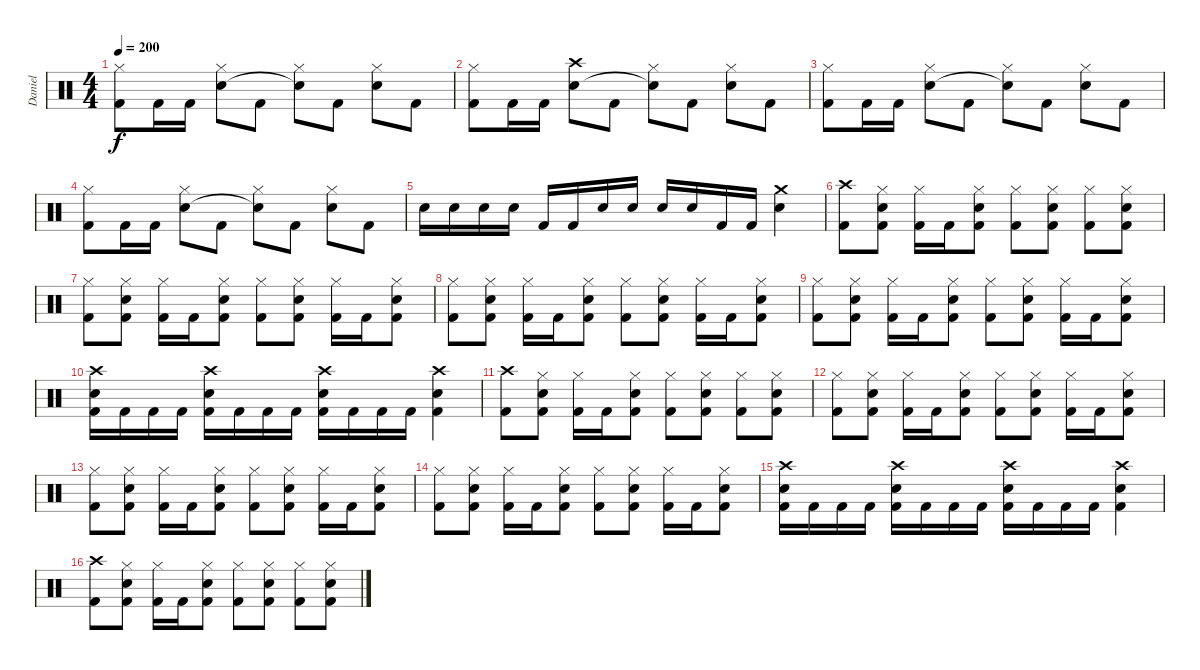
\track ("Daniel" "Daniel") {instrument percussion}
\staff {score}
\articulation defaults
\ts (4 4)
\tempo 200
\clef neutral
\ks c
("Hi-Hat (closed)" "Kick (hit) 2").8{dy f} "Kick (hit) 2".16 "Kick (hit) 2".16 ("Hi-Hat (closed)" "Electric Snare (hit)").8 "Kick (hit) 2".8 ("Hi-Hat (closed)" "Snare (hit)"{t}).8 "Kick (hit) 2".8 ("Hi-Hat (closed)" "Electric Snare (hit)").8 "Kick (hit) 2".8 |
("Hi-Hat (closed)" "Kick (hit) 2").8 "Kick (hit) 2".16 "Kick (hit) 2".16 ("Crash high (hit)" "Electric Snare (hit)").8 "Kick (hit) 2".8 ("Hi-Hat (closed)" "Snare (hit)"{t}).8 "Kick (hit) 2".8 ("Hi-Hat (closed)" "Electric Snare (hit)").8 "Kick (hit) 2".8 |
("Hi-Hat (closed)" "Kick (hit) 2").8 "Kick (hit) 2".16 "Kick (hit) 2".16 ("Hi-Hat (closed)" "Electric Snare (hit)").8 "Kick (hit) 2".8 ("Hi-Hat (closed)" "Snare (hit)"{t}).8 "Kick (hit) 2".8 ("Hi-Hat (closed)" "Electric Snare (hit)").8 "Kick (hit) 2".8 |
("Hi-Hat (closed)" "Kick (hit) 2").8 "Kick (hit) 2".16 "Kick (hit) 2".16 ("Hi-Hat (closed)" "Electric Snare (hit)").8 "Kick (hit) 2".8 ("Hi-Hat (closed)" "Snare (hit)"{t}).8 "Kick (hit) 2".8 ("Hi-Hat (closed)" "Electric Snare (hit)").8 "Kick (hit) 2".8 |
"Snare (hit) 2".16 "Snare (hit) 2".16 "Snare (hit) 2".16 "Snare (hit) 2".16 "Kick (hit) 2".16 "Kick (hit) 2".16 "Snare (hit) 2".16 "Snare (hit) 2".16 "Snare (hit) 2".16 "Snare (hit) 2".16 "Kick (hit) 2".16 "Kick (hit) 2".16 ("Crash medium (hit)" "Snare (hit) 2").4 |
("Crash high (hit)" "Kick (hit) 2").8 ("Hi-Hat (closed)" "Electric Snare (hit)" "Kick (hit) 2").8 ("Hi-Hat (closed)" "Kick (hit) 2").16 "Kick (hit) 2".16 ("Hi-Hat (closed)" "Electric Snare (hit)" "Kick (hit) 2").8 ("Hi-Hat (closed)" "Kick (hit) 2").8 ("Hi-Hat (closed)" "Electric Snare (hit)" "Kick (hit) 2").8 ("Hi-Hat (closed)" "Kick (hit) 2").8 ("Hi-Hat (closed)" "Electric Snare (hit)" "Kick (hit) 2").8 |
("Hi-Hat (closed)" "Kick (hit) 2").8 ("Hi-Hat (closed)" "Electric Snare (hit)" "Kick (hit) 2").8 ("Hi-Hat (closed)" "Kick (hit) 2").16 "Kick (hit) 2".16 ("Hi-Hat (closed)" "Electric Snare (hit)" "Kick (hit) 2").8 ("Hi-Hat (closed)" "Kick (hit) 2").8 ("Hi-Hat (closed)" "Electric Snare (hit)" "Kick (hit) 2").8 ("Hi-Hat (closed)" "Kick (hit) 2").16 "Kick (hit) 2".16 ("Hi-Hat (closed)" "Electric Snare (hit)" "Kick (hit) 2").8 |
("Hi-Hat (closed)" "Kick (hit) 2").8 ("Hi-Hat (closed)" "Electric Snare (hit)" "Kick (hit) 2").8 ("Hi-Hat (closed)" "Kick (hit) 2").16 "Kick (hit) 2".16 ("Hi-Hat (closed)" "Electric Snare (hit)" "Kick (hit) 2").8 ("Hi-Hat (closed)" "Kick (hit) 2").8 ("Hi-Hat (closed)" "Electric Snare (hit)" "Kick (hit) 2").8 ("Hi-Hat (closed)" "Kick (hit) 2").16 "Kick (hit) 2".16 ("Hi-Hat (closed)" "Electric Snare (hit)" "Kick (hit) 2").8 |
("Hi-Hat (closed)" "Kick (hit) 2").8 ("Hi-Hat (closed)" "Electric Snare (hit)" "Kick (hit) 2").8 ("Hi-Hat (closed)" "Kick (hit) 2").16 "Kick (hit) 2".16 ("Hi-Hat (closed)" "Electric Snare (hit)" "Kick (hit) 2").8 ("Hi-Hat (closed)" "Kick (hit) 2").8 ("Hi-Hat (closed)" "Electric Snare (hit)" "Kick (hit) 2").8 ("Hi-Hat (closed)" "Kick (hit) 2").16 "Kick (hit) 2".16 ("Hi-Hat (closed)" "Electric Snare (hit)" "Kick (hit) 2").8 |
("Crash high (hit)" "Electric Snare (hit)" "Kick (hit) 2").16 "Kick (hit) 2".16 "Kick (hit) 2".16 "Kick (hit) 2".16 ("Crash high (hit)" "Electric Snare (hit)" "Kick (hit) 2").16 "Kick (hit) 2".16 "Kick (hit) 2".16 "Kick (hit) 2".16 ("Crash high (hit)" "Electric Snare (hit)" "Kick (hit) 2").16 "Kick (hit) 2".16 "Kick (hit) 2".16 "Kick (hit) 2".16 ("Crash high (hit)" "Electric Snare (hit)" "Kick (hit) 2").4 |
("Crash high (hit)" "Kick (hit) 2").8 ("Hi-Hat (closed)" "Electric Snare (hit)" "Kick (hit) 2").8 ("Hi-Hat (closed)" "Kick (hit) 2").16 "Kick (hit) 2".16 ("Hi-Hat (closed)" "Electric Snare (hit)" "Kick (hit) 2").8 ("Hi-Hat (closed)" "Kick (hit) 2").8 ("Hi-Hat (closed)" "Electric Snare (hit)" "Kick (hit) 2").8 ("Hi-Hat (closed)" "Kick (hit) 2").8 ("Hi-Hat (closed)" "Electric Snare (hit)" "Kick (hit) 2").8 |
("Hi-Hat (closed)" "Kick (hit) 2").8 ("Hi-Hat (closed)" "Electric Snare (hit)" "Kick (hit) 2").8 ("Hi-Hat (closed)" "Kick (hit) 2").16 "Kick (hit) 2".16 ("Hi-Hat (closed)" "Electric Snare (hit)" "Kick (hit) 2").8 ("Hi-Hat (closed)" "Kick (hit) 2").8 ("Hi-Hat (closed)" "Electric Snare (hit)" "Kick (hit) 2").8 ("Hi-Hat (closed)" "Kick (hit) 2").16 "Kick (hit) 2".16 ("Hi-Hat (closed)" "Electric Snare (hit)" "Kick (hit) 2").8 |
("Hi-Hat (closed)" "Kick (hit) 2").8 ("Hi-Hat (closed)" "Electric Snare (hit)" "Kick (hit) 2").8 ("Hi-Hat (closed)" "Kick (hit) 2").16 "Kick (hit) 2".16 ("Hi-Hat (closed)" "Electric Snare (hit)" "Kick (hit) 2").8 ("Hi-Hat (closed)" "Kick (hit) 2").8 ("Hi-Hat (closed)" "Electric Snare (hit)" "Kick (hit) 2").8 ("Hi-Hat (closed)" "Kick (hit) 2").16 "Kick (hit) 2".16 ("Hi-Hat (closed)" "Electric Snare (hit)" "Kick (hit) 2").8 |
("Hi-Hat (closed)" "Kick (hit) 2").8 ("Hi-Hat (closed)" "Electric Snare (hit)" "Kick (hit) 2").8 ("Hi-Hat (closed)" "Kick (hit) 2").16 "Kick (hit) 2".16 ("Hi-Hat (closed)" "Electric Snare (hit)" "Kick (hit) 2").8 ("Hi-Hat (closed)" "Kick (hit) 2").8 ("Hi-Hat (closed)" "Electric Snare (hit)" "Kick (hit) 2").8 ("Hi-Hat (closed)" "Kick (hit) 2").16 "Kick (hit) 2".16 ("Hi-Hat (closed)" "Electric Snare (hit)" "Kick (hit) 2").8 |
("Crash high (hit)" "Electric Snare (hit)" "Kick (hit) 2").16 "Kick (hit) 2".16 "Kick (hit) 2".16 "Kick (hit) 2".16 ("Crash high (hit)" "Electric Snare (hit)" "Kick (hit) 2").16 "Kick (hit) 2".16 "Kick (hit) 2".16 "Kick (hit) 2".16 ("Crash high (hit)" "Electric Snare (hit)" "Kick (hit) 2").16 "Kick (hit) 2".16 "Kick (hit) 2".16 "Kick (hit) 2".16 ("Crash high (hit)" "Electric Snare (hit)" "Kick (hit) 2").4 |
("Crash high (hit)" "Kick (hit) 2").8 ("Hi-Hat (closed)" "Electric Snare (hit)" "Kick (hit) 2").8 ("Hi-Hat (closed)" "Kick (hit) 2").16 "Kick (hit) 2".16 ("Hi-Hat (closed)" "Electric Snare (hit)" "Kick (hit) 2").8 ("Hi-Hat (closed)" "Kick (hit) 2").8 ("Hi-Hat (closed)" "Electric Snare (hit)" "Kick (hit) 2").8 ("Hi-Hat (closed)" "Kick (hit) 2").8 ("Hi-Hat (closed)" "Electric Snare (hit)" "Kick (hit) 2").8
